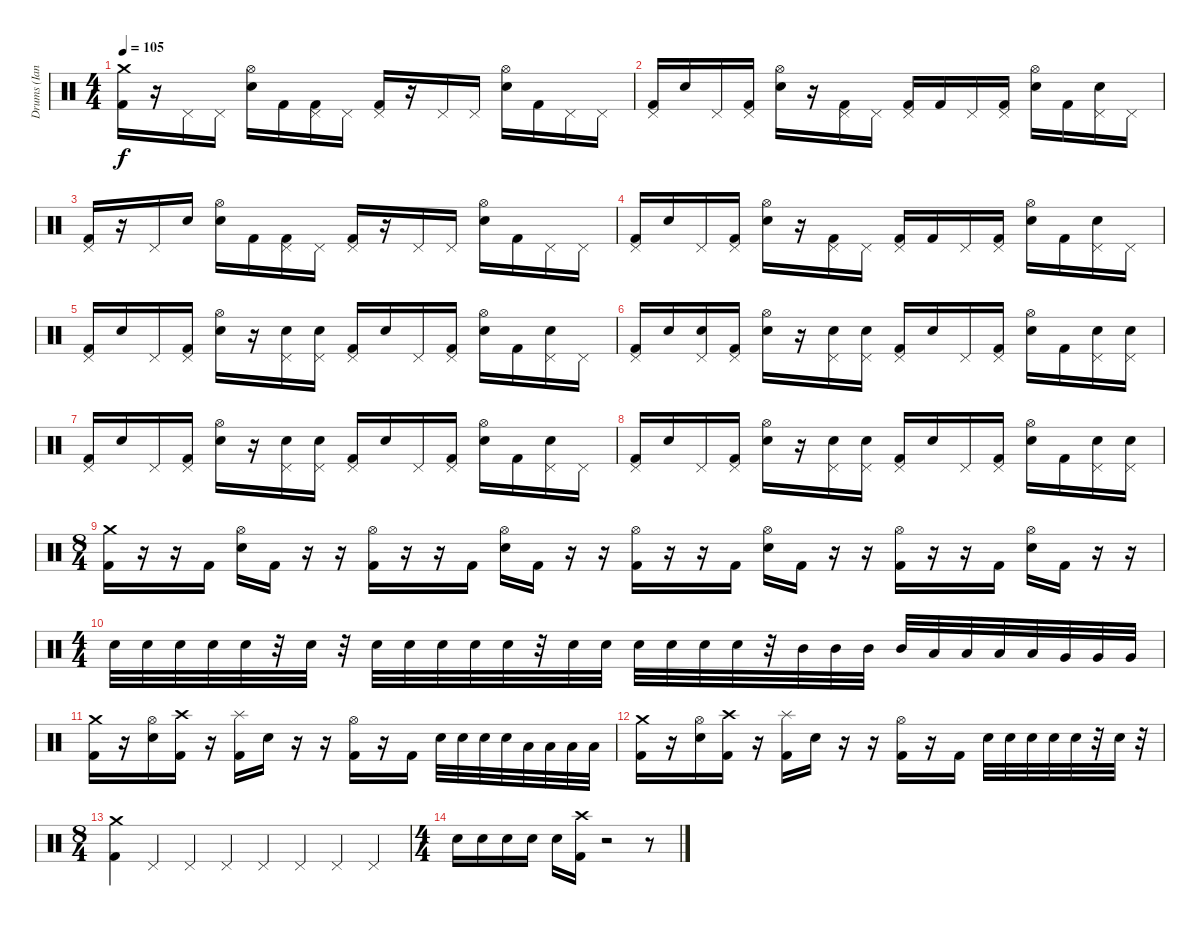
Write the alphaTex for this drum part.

\track ("Drums (Ian Paice)" "Drums (Ian") {instrument percussion}
\staff {score}
\articulation defaults
\ts (4 4)
\tempo 105
\clef neutral
\ks c
("Crash medium (hit)" "Kick (hit) 2").16{dy f} r.16 "Pedal Hi-Hat (hit)".16 "Pedal Hi-Hat (hit)".16 ("Hi-Hat (open)" "Electric Snare (hit)").16 "Kick (hit) 2".16 ("Pedal Hi-Hat (hit)" "Kick (hit) 2").16 "Pedal Hi-Hat (hit)".16 ("Pedal Hi-Hat (hit)" "Kick (hit) 2").16 r.16 "Pedal Hi-Hat (hit)".16 "Pedal Hi-Hat (hit)".16 ("Hi-Hat (open)" "Electric Snare (hit)").16 "Kick (hit) 2".16 "Pedal Hi-Hat (hit)".16 "Pedal Hi-Hat (hit)".16 |
("Pedal Hi-Hat (hit)" "Kick (hit) 2").16 "Electric Snare (hit)".16 "Pedal Hi-Hat (hit)".16 ("Pedal Hi-Hat (hit)" "Kick (hit) 2").16 ("Hi-Hat (open)" "Electric Snare (hit)").16 r.16 ("Pedal Hi-Hat (hit)" "Kick (hit) 2").16 "Pedal Hi-Hat (hit)".16 ("Pedal Hi-Hat (hit)" "Kick (hit) 2").16 "Kick (hit) 2".16 "Pedal Hi-Hat (hit)".16 ("Pedal Hi-Hat (hit)" "Kick (hit) 2").16 ("Hi-Hat (open)" "Electric Snare (hit)").16 "Kick (hit) 2".16 ("Pedal Hi-Hat (hit)" "Electric Snare (hit)").16 "Pedal Hi-Hat (hit)".16 |
("Pedal Hi-Hat (hit)" "Kick (hit) 2").16 r.16 "Pedal Hi-Hat (hit)".16 "Snare (hit)".16 ("Hi-Hat (open)" "Electric Snare (hit)").16 "Kick (hit) 2".16 ("Pedal Hi-Hat (hit)" "Kick (hit) 2").16 "Pedal Hi-Hat (hit)".16 ("Pedal Hi-Hat (hit)" "Kick (hit) 2").16 r.16 "Pedal Hi-Hat (hit)".16 "Pedal Hi-Hat (hit)".16 ("Hi-Hat (open)" "Electric Snare (hit)").16 "Kick (hit) 2".16 "Pedal Hi-Hat (hit)".16 "Pedal Hi-Hat (hit)".16 |
("Pedal Hi-Hat (hit)" "Kick (hit) 2").16 "Electric Snare (hit)".16 "Pedal Hi-Hat (hit)".16 ("Pedal Hi-Hat (hit)" "Kick (hit) 2").16 ("Hi-Hat (open)" "Electric Snare (hit)").16 r.16 ("Pedal Hi-Hat (hit)" "Kick (hit) 2").16 "Pedal Hi-Hat (hit)".16 ("Pedal Hi-Hat (hit)" "Kick (hit) 2").16 "Kick (hit) 2".16 "Pedal Hi-Hat (hit)".16 ("Pedal Hi-Hat (hit)" "Kick (hit) 2").16 ("Hi-Hat (open)" "Electric Snare (hit)").16 "Kick (hit) 2".16 ("Pedal Hi-Hat (hit)" "Electric Snare (hit)").16 "Pedal Hi-Hat (hit)".16 |
("Pedal Hi-Hat (hit)" "Kick (hit) 2").16 "Electric Snare (hit)".16 "Pedal Hi-Hat (hit)".16 ("Pedal Hi-Hat (hit)" "Kick (hit) 2").16 ("Hi-Hat (open)" "Electric Snare (hit)").16 r.16 ("Pedal Hi-Hat (hit)" "Electric Snare (hit)").16 ("Pedal Hi-Hat (hit)" "Electric Snare (hit)").16 ("Pedal Hi-Hat (hit)" "Kick (hit) 2").16 "Electric Snare (hit)".16 "Pedal Hi-Hat (hit)".16 ("Pedal Hi-Hat (hit)" "Kick (hit) 2").16 ("Hi-Hat (open)" "Electric Snare (hit)").16 "Kick (hit) 2".16 ("Pedal Hi-Hat (hit)" "Electric Snare (hit)").16 "Pedal Hi-Hat (hit)".16 |
("Pedal Hi-Hat (hit)" "Kick (hit) 2").16 "Electric Snare (hit)".16 ("Pedal Hi-Hat (hit)" "Electric Snare (hit)").16 ("Pedal Hi-Hat (hit)" "Kick (hit) 2").16 ("Hi-Hat (open)" "Electric Snare (hit)").16 r.16 ("Pedal Hi-Hat (hit)" "Electric Snare (hit)").16 ("Pedal Hi-Hat (hit)" "Electric Snare (hit)").16 ("Pedal Hi-Hat (hit)" "Kick (hit) 2").16 "Electric Snare (hit)".16 "Pedal Hi-Hat (hit)".16 ("Pedal Hi-Hat (hit)" "Kick (hit) 2").16 ("Hi-Hat (open)" "Electric Snare (hit)").16 "Kick (hit) 2".16 ("Pedal Hi-Hat (hit)" "Electric Snare (hit)").16 ("Pedal Hi-Hat (hit)" "Electric Snare (hit)").16 |
("Pedal Hi-Hat (hit)" "Kick (hit) 2").16 "Electric Snare (hit)".16 "Pedal Hi-Hat (hit)".16 ("Pedal Hi-Hat (hit)" "Kick (hit) 2").16 ("Hi-Hat (open)" "Electric Snare (hit)").16 r.16 ("Pedal Hi-Hat (hit)" "Electric Snare (hit)").16 ("Pedal Hi-Hat (hit)" "Electric Snare (hit)").16 ("Pedal Hi-Hat (hit)" "Kick (hit) 2").16 "Electric Snare (hit)".16 "Pedal Hi-Hat (hit)".16 ("Pedal Hi-Hat (hit)" "Kick (hit) 2").16 ("Hi-Hat (open)" "Electric Snare (hit)").16 "Kick (hit) 2".16 ("Pedal Hi-Hat (hit)" "Electric Snare (hit)").16 "Pedal Hi-Hat (hit)".16 |
("Pedal Hi-Hat (hit)" "Kick (hit) 2").16 "Electric Snare (hit)".16 "Pedal Hi-Hat (hit)".16 ("Pedal Hi-Hat (hit)" "Kick (hit) 2").16 ("Hi-Hat (open)" "Electric Snare (hit)").16 r.16 ("Pedal Hi-Hat (hit)" "Electric Snare (hit)").16 ("Pedal Hi-Hat (hit)" "Electric Snare (hit)").16 ("Pedal Hi-Hat (hit)" "Kick (hit) 2").16 "Electric Snare (hit)".16 "Pedal Hi-Hat (hit)".16 ("Pedal Hi-Hat (hit)" "Kick (hit) 2").16 ("Hi-Hat (open)" "Electric Snare (hit)").16 "Kick (hit) 2".16 ("Pedal Hi-Hat (hit)" "Electric Snare (hit)").16 ("Pedal Hi-Hat (hit)" "Electric Snare (hit)").16 |
\ts (8 4)
("Crash medium (hit)" "Kick (hit) 2").16 r.16 r.16 "Kick (hit) 2".16 ("Hi-Hat (open)" "Electric Snare (hit)").16 "Kick (hit) 2".16 r.16 r.16 ("Hi-Hat (open)" "Kick (hit) 2").16 r.16 r.16 "Kick (hit) 2".16 ("Hi-Hat (open)" "Electric Snare (hit)").16 "Kick (hit) 2".16 r.16 r.16 ("Hi-Hat (open)" "Kick (hit) 2").16 r.16 r.16 "Kick (hit) 2".16 ("Hi-Hat (open)" "Electric Snare (hit)").16 "Kick (hit) 2".16 r.16 r.16 ("Hi-Hat (open)" "Kick (hit) 2").16 r.16 r.16 "Kick (hit) 2".16 ("Hi-Hat (open)" "Electric Snare (hit)").16 "Kick (hit) 2".16 r.16 r.16 |
\ts (4 4)
"Electric Snare (hit)".32 "Electric Snare (hit)".32 "Electric Snare (hit)".32 "Electric Snare (hit)".32 "Electric Snare (hit)".32 r.32 "Electric Snare (hit)".32 r.32 "Electric Snare (hit)".32 "Electric Snare (hit)".32 "Electric Snare (hit)".32 "Electric Snare (hit)".32 "Electric Snare (hit)".32 r.32 "Electric Snare (hit)".32 "Electric Snare (hit)".32 "Electric Snare (hit)".32 "Electric Snare (hit)".32 "Electric Snare (hit)".32 "Electric Snare (hit)".32 r.32 "Mid Tom (hit)".32 "Mid Tom (hit)".32 "Mid Tom (hit)".32 "Mid Tom (hit)".32 "Low Tom (hit)".32 "Low Tom (hit)".32 "Low Tom (hit)".32 "Low Tom (hit)".32 "Very Low Tom (hit)".32 "Very Low Tom (hit)".32 "Very Low Tom (hit)".32 |
("Crash medium (hit)" "Kick (hit) 2").16 r.16 ("Hi-Hat (open)" "Electric Snare (hit)").16 ("Crash high (hit)" "Kick (hit) 2").16 r.16 ("Splash (hit)" "Kick (hit) 2").16 "Electric Snare (hit)".16 r.16 r.16 ("Hi-Hat (open)" "Kick (hit) 2").16 r.16 "Kick (hit) 2".16 "Electric Snare (hit)".32 "Electric Snare (hit)".32 "Electric Snare (hit)".32 "Electric Snare (hit)".32 "Low Tom (hit)".32 "Low Tom (hit)".32 "Low Tom (hit)".32 "Low Tom (hit)".32 |
("Crash medium (hit)" "Kick (hit) 2").16 r.16 ("Hi-Hat (open)" "Electric Snare (hit)").16 ("Crash high (hit)" "Kick (hit) 2").16 r.16 ("Splash (hit)" "Kick (hit) 2").16 "Electric Snare (hit)".16 r.16 r.16 ("Hi-Hat (open)" "Kick (hit) 2").16 r.16 "Kick (hit) 2".16 "Electric Snare (hit)".32 "Electric Snare (hit)".32 "Electric Snare (hit)".32 "Electric Snare (hit)".32 "Electric Snare (hit)".32 r.32 "Electric Snare (hit)".32 r.32 |
\ts (8 4)
("Crash medium (hit)" "Kick (hit) 2").4 "Pedal Hi-Hat (hit)".4 "Pedal Hi-Hat (hit)".4 "Pedal Hi-Hat (hit)".4 "Pedal Hi-Hat (hit)".4 "Pedal Hi-Hat (hit)".4 "Pedal Hi-Hat (hit)".4 "Pedal Hi-Hat (hit)".4 |
\ts (4 4)
"Electric Snare (hit)".16 "Electric Snare (hit)".16 "Electric Snare (hit)".16 "Electric Snare (hit)".16 "Electric Snare (hit)".16 ("Crash high (hit)" "Kick (hit) 2").16 r.2 r.8
